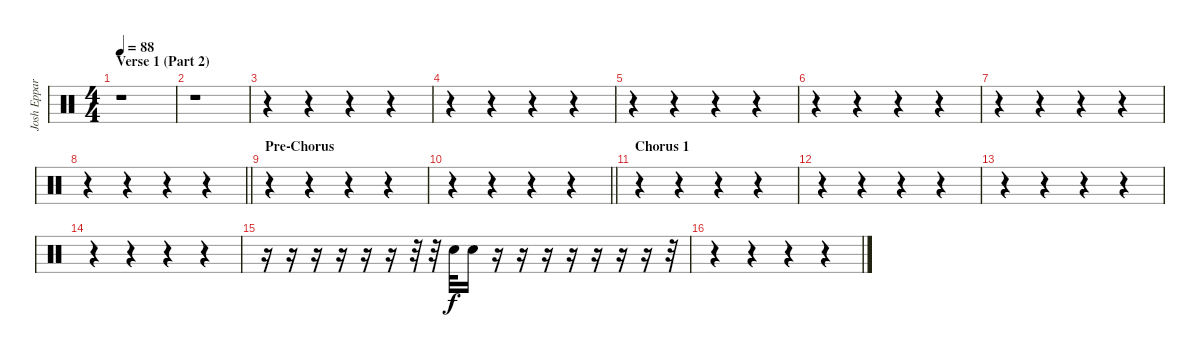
\track ("Josh Eppard (Extra Snare)" "Josh Eppar") {instrument percussion}
\staff {score}
\articulation defaults
\ts (4 4)
\section ("" "Verse 1 (Part 2)")
\tempo 88
\clef neutral
\ks c
r.1{dy f} |
r.1 |
r.4 r.4 r.4 r.4 |
r.4 r.4 r.4 r.4 |
r.4 r.4 r.4 r.4 |
r.4 r.4 r.4 r.4 |
r.4 r.4 r.4 r.4 |
\barLineRight lightlight
r.4 r.4 r.4 r.4 |
\section ("" "Pre-Chorus")
r.4 r.4 r.4 r.4 |
\barLineRight lightlight
r.4 r.4 r.4 r.4 |
\section ("" "Chorus 1")
r.4 r.4 r.4 r.4 |
r.4 r.4 r.4 r.4 |
r.4 r.4 r.4 r.4 |
r.4 r.4 r.4 r.4 |
r.16 r.16 r.16 r.16 r.16 r.16 r.32 r.32 "Electric Snare (hit)".32 "Electric Snare (hit)".16 r.16 r.16 r.16 r.16 r.16 r.16 r.16 r.32 |
r.4 r.4 r.4 r.4
